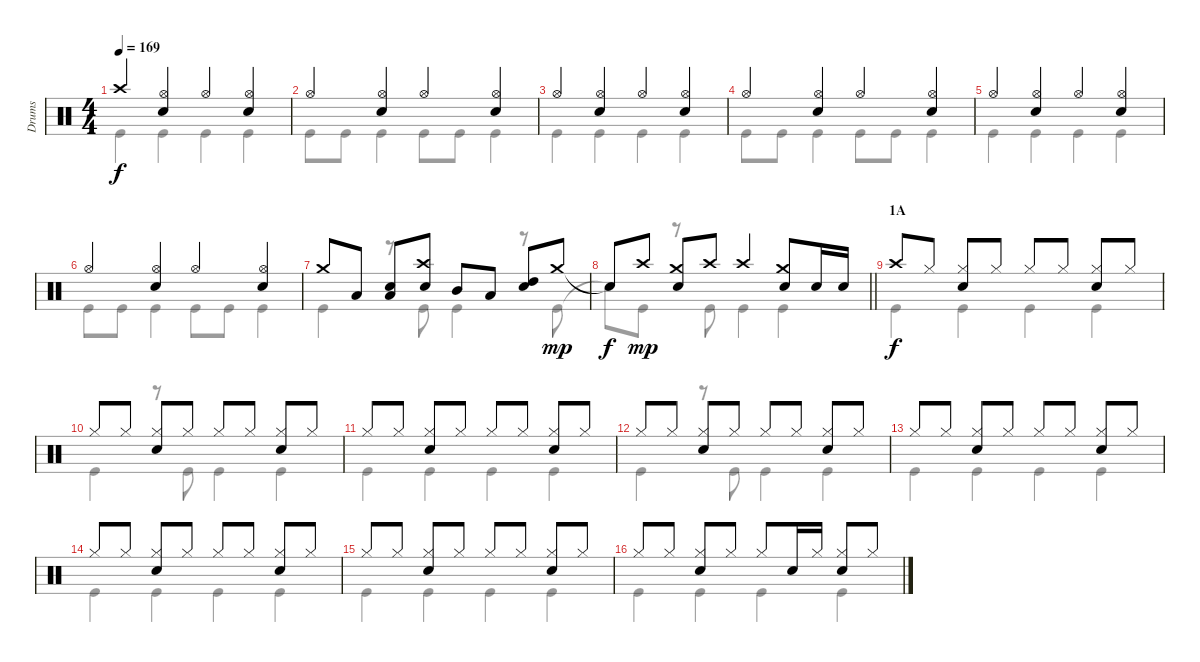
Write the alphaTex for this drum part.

\track ("Drums" "Drums") {instrument percussion}
\staff {score}
\articulation defaults
\voice
\ts (4 4)
\tempo 169
\clef neutral
\ks c "Crash high (hit)".4{dy f}
("Hi-Hat (open)" "Snare (hit) 2").4 "Hi-Hat (open)".4 ("Hi-Hat (open)" "Snare (hit) 2").4 |
"Hi-Hat (open)".4 ("Hi-Hat (open)" "Snare (hit) 2").4 "Hi-Hat (open)".4 ("Hi-Hat (open)" "Snare (hit) 2").4 |
"Hi-Hat (open)".4 ("Hi-Hat (open)" "Snare (hit) 2").4 "Hi-Hat (open)".4 ("Hi-Hat (open)" "Snare (hit) 2").4 |
"Hi-Hat (open)".4 ("Hi-Hat (open)" "Snare (hit) 2").4 "Hi-Hat (open)".4 ("Hi-Hat (open)" "Snare (hit) 2").4 |
"Hi-Hat (open)".4 ("Hi-Hat (open)" "Snare (hit) 2").4 "Hi-Hat (open)".4 ("Hi-Hat (open)" "Snare (hit) 2").4 |
"Hi-Hat (open)".4 ("Hi-Hat (open)" "Snare (hit) 2").4 "Hi-Hat (open)".4 ("Hi-Hat (open)" "Snare (hit) 2").4 |
"Crash medium (hit)".8 "Low Tom (hit)".8 ("Low Tom (hit)" "Snare (hit) 2").8 ("Crash high (hit)" "Snare (hit) 2").8 "Mid Tom (hit)".8 "Low Tom (hit)".8 ("High Tom (hit)" "Snare (hit) 2").8 "Crash medium (hit)".8{dy mp} |
\barLineRight lightlight "Snare (hit)"{t}.8{dy f} "Crash high (hit)".8{dy mp}
("Crash medium (hit)" "Snare (hit) 2").8 "Crash high (hit)".8 "Crash high (hit)".4 ("Crash medium (hit)" "Snare (hit) 2").8 "Snare (hit) 2".16 "Snare (hit) 2".16 |
\section ("" "1A")
"Crash high (hit)".8{dy f} "Hi-Hat (closed)".8 ("Hi-Hat (closed)" "Snare (hit) 2").8 "Hi-Hat (closed)".8 "Hi-Hat (closed)".8 "Hi-Hat (closed)".8 ("Hi-Hat (closed)" "Snare (hit) 2").8 "Hi-Hat (closed)".8 |
"Hi-Hat (closed)".8 "Hi-Hat (closed)".8 ("Hi-Hat (closed)" "Snare (hit) 2").8 "Hi-Hat (closed)".8 "Hi-Hat (closed)".8 "Hi-Hat (closed)".8 ("Hi-Hat (closed)" "Snare (hit) 2").8 "Hi-Hat (closed)".8 |
"Hi-Hat (closed)".8 "Hi-Hat (closed)".8 ("Hi-Hat (closed)" "Snare (hit) 2").8 "Hi-Hat (closed)".8 "Hi-Hat (closed)".8 "Hi-Hat (closed)".8 ("Hi-Hat (closed)" "Snare (hit) 2").8 "Hi-Hat (closed)".8 |
"Hi-Hat (closed)".8 "Hi-Hat (closed)".8 ("Hi-Hat (closed)" "Snare (hit) 2").8 "Hi-Hat (closed)".8 "Hi-Hat (closed)".8 "Hi-Hat (closed)".8 ("Hi-Hat (closed)" "Snare (hit) 2").8 "Hi-Hat (closed)".8 |
"Hi-Hat (closed)".8 "Hi-Hat (closed)".8 ("Hi-Hat (closed)" "Snare (hit) 2").8 "Hi-Hat (closed)".8 "Hi-Hat (closed)".8 "Hi-Hat (closed)".8 ("Hi-Hat (closed)" "Snare (hit) 2").8 "Hi-Hat (closed)".8 |
"Hi-Hat (closed)".8 "Hi-Hat (closed)".8 ("Hi-Hat (closed)" "Snare (hit) 2").8 "Hi-Hat (closed)".8 "Hi-Hat (closed)".8 "Hi-Hat (closed)".8 ("Hi-Hat (closed)" "Snare (hit) 2").8 "Hi-Hat (closed)".8 |
"Hi-Hat (closed)".8 "Hi-Hat (closed)".8 ("Hi-Hat (closed)" "Snare (hit) 2").8 "Hi-Hat (closed)".8 "Hi-Hat (closed)".8 "Hi-Hat (closed)".8 ("Hi-Hat (closed)" "Snare (hit) 2").8 "Hi-Hat (closed)".8 |
"Hi-Hat (closed)".8 "Hi-Hat (closed)".8 ("Hi-Hat (closed)" "Snare (hit) 2").8 "Hi-Hat (closed)".8 "Hi-Hat (closed)".8 "Snare (hit) 2".16 "Hi-Hat (closed)".16 ("Hi-Hat (closed)" "Snare (hit) 2").8 "Hi-Hat (closed)".8
\voice
\clef neutral
\ottava regular
\simile none
\ks c "Kick (hit)".4{dy f} "Kick (hit)".4 "Kick (hit)".4 "Kick (hit)".4
|
"Kick (hit)".8 "Kick (hit)".8 "Kick (hit)".4 "Kick (hit)".8 "Kick (hit)".8 "Kick (hit)".4 |
"Kick (hit)".4 "Kick (hit)".4 "Kick (hit)".4 "Kick (hit)".4 |
"Kick (hit)".8 "Kick (hit)".8 "Kick (hit)".4 "Kick (hit)".8 "Kick (hit)".8 "Kick (hit)".4 |
"Kick (hit)".4 "Kick (hit)".4 "Kick (hit)".4 "Kick (hit)".4 |
"Kick (hit)".8 "Kick (hit)".8 "Kick (hit)".4 "Kick (hit)".8 "Kick (hit)".8 "Kick (hit)".4 |
"Kick (hit)".4 r.8 "Kick (hit)".8 "Kick (hit)".4 r.8 "Kick (hit)".8 |
\barLineRight lightlight "Snare (hit)"{t}.8 "Kick (hit)".8{dy mp}
r.8 "Kick (hit)".8 "Kick (hit)".4 "Kick (hit)".4 |
"Kick (hit)".4{dy f} "Kick (hit)".4 "Kick (hit)".4 "Kick (hit)".4 |
"Kick (hit)".4 r.8 "Kick (hit)".8 "Kick (hit)".4 "Kick (hit)".4 |
"Kick (hit)".4 "Kick (hit)".4 "Kick (hit)".4 "Kick (hit)".4 |
"Kick (hit)".4 r.8 "Kick (hit)".8 "Kick (hit)".4 "Kick (hit)".4 |
"Kick (hit)".4 "Kick (hit)".4 "Kick (hit)".4 "Kick (hit)".4 |
"Kick (hit)".4 "Kick (hit)".4 "Kick (hit)".4 "Kick (hit)".4 |
"Kick (hit)".4 "Kick (hit)".4 "Kick (hit)".4 "Kick (hit)".4 |
"Kick (hit)".4 "Kick (hit)".4 "Kick (hit)".4 "Kick (hit)".4
